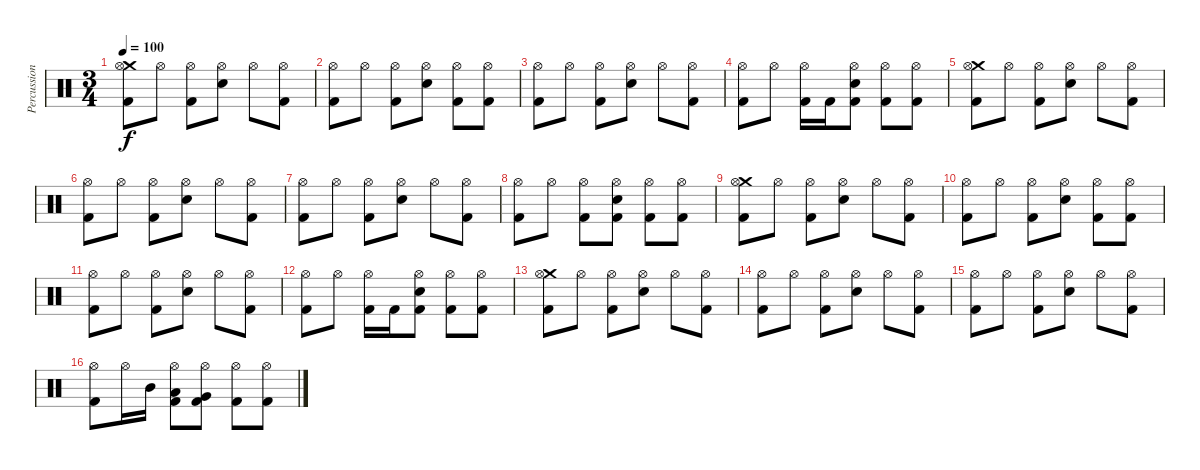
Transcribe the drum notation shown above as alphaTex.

\track ("Percussion" "Percussion") {instrument percussion}
\staff {score}
\articulation defaults
\ts (3 4)
\tempo 100
\clef neutral
\ks c
("Crash medium (hit)" "Hi-Hat (open)" "Kick (hit) 2").8{dy f} "Hi-Hat (open)".8 ("Hi-Hat (open)" "Kick (hit) 2").8 ("Hi-Hat (open)" "Electric Snare (hit)").8 "Hi-Hat (open)".8 ("Hi-Hat (open)" "Kick (hit) 2").8 |
("Hi-Hat (open)" "Kick (hit) 2").8 "Hi-Hat (open)".8 ("Hi-Hat (open)" "Kick (hit) 2").8 ("Hi-Hat (open)" "Electric Snare (hit)").8 ("Hi-Hat (open)" "Kick (hit) 2").8 ("Hi-Hat (open)" "Kick (hit) 2").8 |
("Hi-Hat (open)" "Kick (hit) 2").8 "Hi-Hat (open)".8 ("Hi-Hat (open)" "Kick (hit) 2").8 ("Hi-Hat (open)" "Electric Snare (hit)").8 "Hi-Hat (open)".8 ("Hi-Hat (open)" "Kick (hit) 2").8 |
("Hi-Hat (open)" "Kick (hit) 2").8 "Hi-Hat (open)".8 ("Hi-Hat (open)" "Kick (hit) 2").16 "Kick (hit) 2".16 ("Hi-Hat (open)" "Electric Snare (hit)" "Kick (hit) 2").8 ("Hi-Hat (open)" "Kick (hit) 2").8 ("Hi-Hat (open)" "Kick (hit) 2").8 |
("Crash medium (hit)" "Hi-Hat (open)" "Kick (hit) 2").8 "Hi-Hat (open)".8 ("Hi-Hat (open)" "Kick (hit) 2").8 ("Hi-Hat (open)" "Electric Snare (hit)").8 "Hi-Hat (open)".8 ("Hi-Hat (open)" "Kick (hit) 2").8 |
("Hi-Hat (open)" "Kick (hit) 2").8 "Hi-Hat (open)".8 ("Hi-Hat (open)" "Kick (hit) 2").8 ("Hi-Hat (open)" "Electric Snare (hit)").8 "Hi-Hat (open)".8 ("Hi-Hat (open)" "Kick (hit) 2").8 |
("Hi-Hat (open)" "Kick (hit) 2").8 "Hi-Hat (open)".8 ("Hi-Hat (open)" "Kick (hit) 2").8 ("Hi-Hat (open)" "Electric Snare (hit)").8 "Hi-Hat (open)".8 ("Hi-Hat (open)" "Kick (hit) 2").8 |
("Hi-Hat (open)" "Kick (hit) 2").8 "Hi-Hat (open)".8 ("Hi-Hat (open)" "Kick (hit) 2").8 ("Hi-Hat (open)" "Electric Snare (hit)" "Kick (hit) 2").8 ("Hi-Hat (open)" "Kick (hit) 2").8 ("Hi-Hat (open)" "Kick (hit) 2").8 |
("Crash medium (hit)" "Hi-Hat (open)" "Kick (hit) 2").8 "Hi-Hat (open)".8 ("Hi-Hat (open)" "Kick (hit) 2").8 ("Hi-Hat (open)" "Electric Snare (hit)").8 "Hi-Hat (open)".8 ("Hi-Hat (open)" "Kick (hit) 2").8 |
("Hi-Hat (open)" "Kick (hit) 2").8 "Hi-Hat (open)".8 ("Hi-Hat (open)" "Kick (hit) 2").8 ("Hi-Hat (open)" "Electric Snare (hit)").8 ("Hi-Hat (open)" "Kick (hit) 2").8 ("Hi-Hat (open)" "Kick (hit) 2").8 |
("Hi-Hat (open)" "Kick (hit) 2").8 "Hi-Hat (open)".8 ("Hi-Hat (open)" "Kick (hit) 2").8 ("Hi-Hat (open)" "Electric Snare (hit)").8 "Hi-Hat (open)".8 ("Hi-Hat (open)" "Kick (hit) 2").8 |
("Hi-Hat (open)" "Kick (hit) 2").8 "Hi-Hat (open)".8 ("Hi-Hat (open)" "Kick (hit) 2").16 "Kick (hit) 2".16 ("Hi-Hat (open)" "Electric Snare (hit)" "Kick (hit) 2").8 ("Hi-Hat (open)" "Kick (hit) 2").8 ("Hi-Hat (open)" "Kick (hit) 2").8 |
("Crash medium (hit)" "Hi-Hat (open)" "Kick (hit) 2").8 "Hi-Hat (open)".8 ("Hi-Hat (open)" "Kick (hit) 2").8 ("Hi-Hat (open)" "Electric Snare (hit)").8 "Hi-Hat (open)".8 ("Hi-Hat (open)" "Kick (hit) 2").8 |
("Hi-Hat (open)" "Kick (hit) 2").8 "Hi-Hat (open)".8 ("Hi-Hat (open)" "Kick (hit) 2").8 ("Hi-Hat (open)" "Electric Snare (hit)").8 "Hi-Hat (open)".8 ("Hi-Hat (open)" "Kick (hit) 2").8 |
("Hi-Hat (open)" "Kick (hit) 2").8 "Hi-Hat (open)".8 ("Hi-Hat (open)" "Kick (hit) 2").8 ("Hi-Hat (open)" "Electric Snare (hit)").8 "Hi-Hat (open)".8 ("Hi-Hat (open)" "Kick (hit) 2").8 |
("Hi-Hat (open)" "Kick (hit) 2").8 "Hi-Hat (open)".16 "Mid Tom (hit)".16 ("Hi-Hat (open)" "Low Tom (hit)" "Kick (hit) 2").8 ("Hi-Hat (open)" "Very Low Tom (hit)" "Kick (hit) 2").8 ("Hi-Hat (open)" "Kick (hit) 2").8 ("Hi-Hat (open)" "Kick (hit) 2").8
